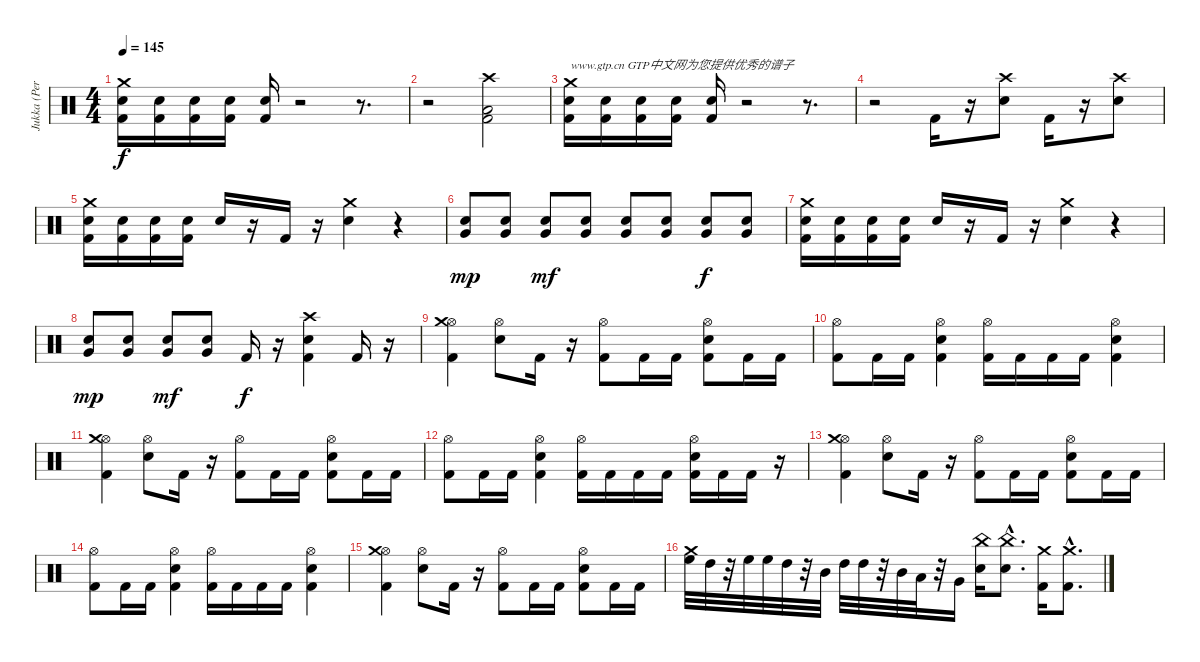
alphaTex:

\track ("Jukka (Percussion)" "Jukka (Per") {instrument percussion}
\staff {score}
\articulation defaults
\ts (4 4)
\tempo 145
\clef neutral
\ks c
("Kick (hit) 2" "Electric Snare (hit)" "Crash medium (hit)").16{dy f} ("Kick (hit) 2" "Electric Snare (hit)").16 ("Kick (hit) 2" "Electric Snare (hit)").16 ("Kick (hit) 2" "Electric Snare (hit)").16 ("Kick (hit) 2" "Electric Snare (hit)").16 r.2 r.8{d} |
r.2 ("Kick (hit) 2" "Low Floor Tom (hit)" "Crash high (hit)").2 |
("Kick (hit) 2" "Electric Snare (hit)" "Crash medium (hit)").16{txt "www.gtp.cn GTP中文网为您提供优秀的谱子"} ("Kick (hit) 2" "Electric Snare (hit)").16 ("Kick (hit) 2" "Electric Snare (hit)").16 ("Kick (hit) 2" "Electric Snare (hit)").16 ("Kick (hit) 2" "Electric Snare (hit)").16 r.2 r.8{d} |
r.2 "Kick (hit) 2".16 r.16 ("Electric Snare (hit)" "Crash high (hit)").8 "Kick (hit) 2".16 r.16 ("Electric Snare (hit)" "Crash high (hit)").8 |
("Kick (hit) 2" "Electric Snare (hit)" "Crash medium (hit)").16 ("Kick (hit) 2" "Electric Snare (hit)").16 ("Kick (hit) 2" "Electric Snare (hit)").16 ("Kick (hit) 2" "Electric Snare (hit)").16 "Electric Snare (hit)".16 r.16 "Kick (hit) 2".16 r.16 ("Electric Snare (hit)" "Crash medium (hit)").4 r.4 |
("Electric Snare (hit)" "Very Low Tom (hit)").8{dy mp} ("Electric Snare (hit)" "Very Low Tom (hit)").8 ("Electric Snare (hit)" "Very Low Tom (hit)").8{dy mf} ("Electric Snare (hit)" "Very Low Tom (hit)").8 ("Electric Snare (hit)" "Very Low Tom (hit)").8 ("Electric Snare (hit)" "Very Low Tom (hit)").8 ("Electric Snare (hit)" "Very Low Tom (hit)").8{dy f} ("Electric Snare (hit)" "Very Low Tom (hit)").8 |
("Kick (hit) 2" "Electric Snare (hit)" "Crash medium (hit)").16 ("Kick (hit) 2" "Electric Snare (hit)").16 ("Kick (hit) 2" "Electric Snare (hit)").16 ("Kick (hit) 2" "Electric Snare (hit)").16 "Electric Snare (hit)".16 r.16 "Kick (hit) 2".16 r.16 ("Electric Snare (hit)" "Crash medium (hit)").4 r.4 |
("Electric Snare (hit)" "Very Low Tom (hit)").8{dy mp} ("Electric Snare (hit)" "Very Low Tom (hit)").8 ("Electric Snare (hit)" "Very Low Tom (hit)").8{dy mf} ("Electric Snare (hit)" "Very Low Tom (hit)").8 "Kick (hit) 2".16{dy f} r.16 ("Kick (hit) 2" "Electric Snare (hit)" "Crash high (hit)").4 "Kick (hit) 2".16 r.16 |
("Kick (hit) 2" "Hi-Hat (open)" "Crash medium (hit)").4 ("Electric Snare (hit)" "Hi-Hat (open)").8 "Kick (hit) 2".16 r.16 ("Kick (hit) 2" "Hi-Hat (open)").8 "Kick (hit) 2".16 "Kick (hit) 2".16 ("Kick (hit) 2" "Electric Snare (hit)" "Hi-Hat (open)").8 "Kick (hit) 2".16 "Kick (hit) 2".16 |
("Kick (hit) 2" "Hi-Hat (open)").8 "Kick (hit) 2".16 "Kick (hit) 2".16 ("Kick (hit) 2" "Electric Snare (hit)" "Hi-Hat (open)").4 ("Kick (hit) 2" "Hi-Hat (open)").16 "Kick (hit) 2".16 "Kick (hit) 2".16 "Kick (hit) 2".16 ("Kick (hit) 2" "Electric Snare (hit)" "Hi-Hat (open)").4 |
("Kick (hit) 2" "Hi-Hat (open)" "Crash medium (hit)").4 ("Electric Snare (hit)" "Hi-Hat (open)").8 "Kick (hit) 2".16 r.16 ("Kick (hit) 2" "Hi-Hat (open)").8 "Kick (hit) 2".16 "Kick (hit) 2".16 ("Kick (hit) 2" "Electric Snare (hit)" "Hi-Hat (open)").8 "Kick (hit) 2".16 "Kick (hit) 2".16 |
("Kick (hit) 2" "Hi-Hat (open)").8 "Kick (hit) 2".16 "Kick (hit) 2".16 ("Kick (hit) 2" "Electric Snare (hit)" "Hi-Hat (open)").4 ("Kick (hit) 2" "Hi-Hat (open)").16 "Kick (hit) 2".16 "Kick (hit) 2".16 "Kick (hit) 2".16 ("Kick (hit) 2" "Electric Snare (hit)" "Hi-Hat (open)").16 "Kick (hit) 2".16 "Kick (hit) 2".16 r.16 |
("Kick (hit) 2" "Hi-Hat (open)" "Crash medium (hit)").4 ("Electric Snare (hit)" "Hi-Hat (open)").8 "Kick (hit) 2".16 r.16 ("Kick (hit) 2" "Hi-Hat (open)").8 "Kick (hit) 2".16 "Kick (hit) 2".16 ("Kick (hit) 2" "Electric Snare (hit)" "Hi-Hat (open)").8 "Kick (hit) 2".16 "Kick (hit) 2".16 |
("Kick (hit) 2" "Hi-Hat (open)").8 "Kick (hit) 2".16 "Kick (hit) 2".16 ("Kick (hit) 2" "Electric Snare (hit)" "Hi-Hat (open)").4 ("Kick (hit) 2" "Hi-Hat (open)").16 "Kick (hit) 2".16 "Kick (hit) 2".16 "Kick (hit) 2".16 ("Kick (hit) 2" "Electric Snare (hit)" "Hi-Hat (open)").4 |
("Kick (hit) 2" "Hi-Hat (open)" "Crash medium (hit)").4 ("Electric Snare (hit)" "Hi-Hat (open)").8 "Kick (hit) 2".16 r.16 ("Kick (hit) 2" "Hi-Hat (open)").8 "Kick (hit) 2".16 "Kick (hit) 2".16 ("Kick (hit) 2" "Electric Snare (hit)" "Hi-Hat (open)").8 "Kick (hit) 2".16 "Kick (hit) 2".16 |
("High Floor Tom (hit)" "Crash medium (hit)").32 "High Tom (hit)".32 r.32 "High Floor Tom (hit)".32 "High Floor Tom (hit)".32 "High Tom (hit)".32 r.32 "Mid Tom (hit)".32 "High Tom (hit)".32 "High Tom (hit)".32 r.32 "Mid Tom (hit)".32 "Low Tom (hit)".32 r.32 "Very Low Tom (hit)".16 ("Electric Snare (hit)" "China (hit)").16 ("Electric Snare (hit)" "China (hit)"{hac}).8{d} ("Kick (hit) 2" "Crash medium (hit)").16 ("Kick (hit) 2" "Crash medium (hit)"{hac}).8{d}
